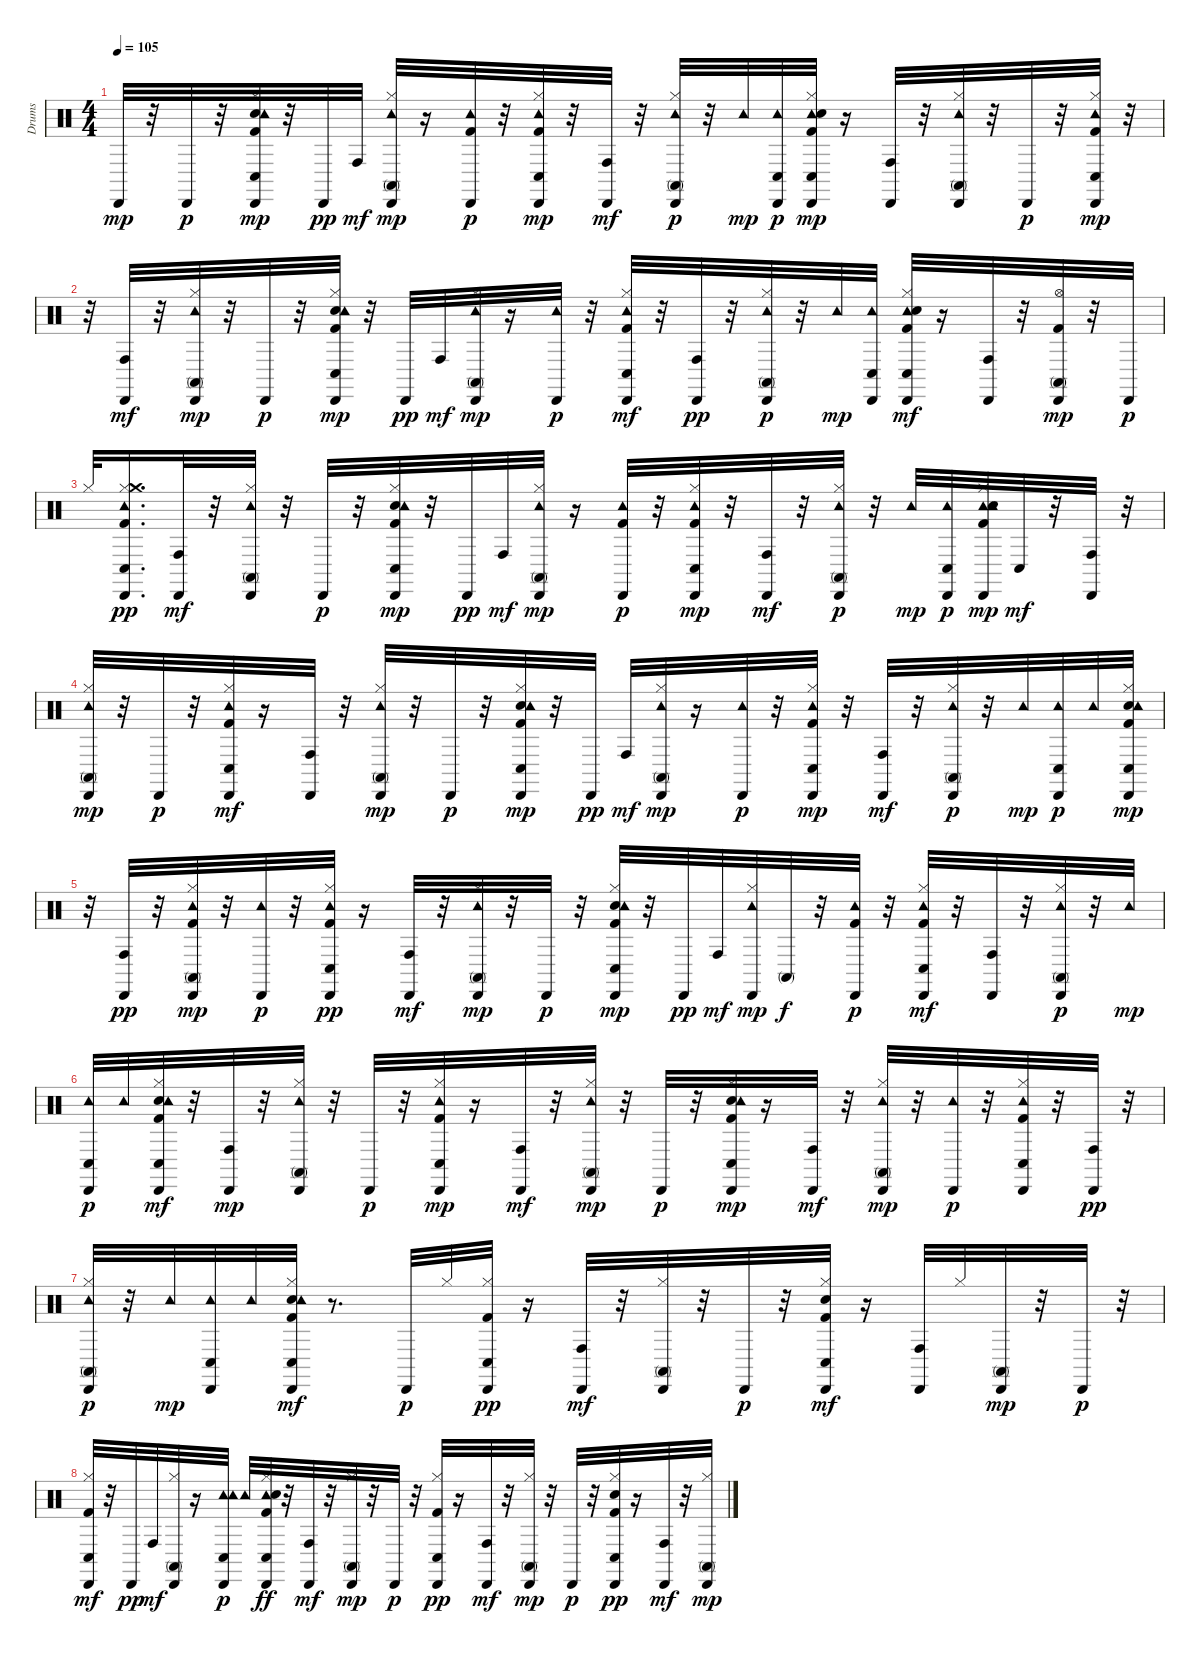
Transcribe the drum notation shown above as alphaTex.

\track ("Drums" "Drums") {instrument percussion}
\staff {score}
\articulation defaults
\ts (4 4)
\tempo 105
\clef neutral
\ks c "Cabasa (hit)".32{dy mp}
r.32 "Cabasa (hit)".32{dy p} r.32 ("Kick (hit) 2" "Snare (hit) 2" "Hi-Hat (closed)" "Cabasa (hit)" "Tambourine (hit)" "Conga low (hit)").32{dy mp} r.32 "Cabasa (hit)".32{dy pp} "Conga high (hit)".32{dy mf} ("Tambourine (hit)" "Hi-Hat (closed)" "Cabasa (hit)" "Conga high (mute)").32{dy mp} r.16 ("Tambourine (hit)" "Kick (hit) 2" "Cabasa (hit)").32{dy p} r.32 ("Conga low (hit)" "Kick (hit) 2" "Hi-Hat (closed)" "Cabasa (hit)" "Tambourine (hit)").32{dy mp} r.32 ("Cabasa (hit)" "Conga high (hit)").32{dy mf} r.32 ("Hi-Hat (closed)" "Cabasa (hit)" "Conga high (mute)" "Tambourine (hit)").32{dy p} r.32 "Tambourine (hit)".32{dy mp} ("Cabasa (hit)" "Conga low (hit)" "Tambourine (hit)").32{dy p} ("Tambourine (hit)" "Conga low (hit)" "Cabasa (hit)" "Kick (hit) 2" "Snare (hit) 2" "Hi-Hat (closed)").32{dy mp} r.16 ("Cabasa (hit)" "Conga high (hit)").32 r.32 ("Hi-Hat (closed)" "Tambourine (hit)" "Conga high (mute)" "Cabasa (hit)").32 r.32 "Cabasa (hit)".32{dy p} r.32 ("Kick (hit) 2" "Hi-Hat (closed)" "Conga low (hit)" "Cabasa (hit)" "Tambourine (hit)").32{dy mp} r.32 |
r.32 ("Cabasa (hit)" "Conga high (hit)").32{dy mf} r.32 ("Conga high (mute)" "Hi-Hat (closed)" "Tambourine (hit)" "Cabasa (hit)").32{dy mp} r.32 "Cabasa (hit)".32{dy p} r.32 ("Kick (hit) 2" "Snare (hit) 2" "Hi-Hat (closed)" "Cabasa (hit)" "Tambourine (hit)" "Conga low (hit)").32{dy mp} r.32 "Cabasa (hit)".32{dy pp} "Conga high (hit)".32{dy mf} ("Hi-Hat (closed)" "Tambourine (hit)" "Cabasa (hit)" "Conga high (mute)").32{dy mp} r.16 ("Tambourine (hit)" "Cabasa (hit)").32{dy p} r.32 ("Kick (hit) 2" "Hi-Hat (closed)" "Tambourine (hit)" "Cabasa (hit)" "Conga low (hit)").32{dy mf} r.32 ("Conga high (hit)" "Cabasa (hit)").32{dy pp} r.32 ("Conga high (mute)" "Hi-Hat (closed)" "Cabasa (hit)" "Tambourine (hit)").32{dy p} r.32 "Tambourine (hit)".32{dy mp} ("Cabasa (hit)" "Conga low (hit)" "Tambourine (hit)").32 ("Tambourine (hit)" "Cabasa (hit)" "Kick (hit) 2" "Snare (hit) 2" "Hi-Hat (closed)" "Conga low (hit)").32{dy mf} r.16 ("Cabasa (hit)" "Conga high (hit)").32 r.32 ("Kick (hit) 2" "Hi-Hat (open)" "Conga high (mute)" "Cabasa (hit)").32{dy mp} r.32 "Cabasa (hit)".32{dy p} |
"Hi-Hat (closed)".32 ("Kick (hit) 2" "Hi-Hat (closed)" "Crash medium (hit)" "Conga low (hit)" "Tambourine (hit)" "Cabasa (hit)").16{d dy pp} ("Cabasa (hit)" "Conga high (hit)").32{dy mf} r.32 ("Hi-Hat (closed)" "Tambourine (hit)" "Cabasa (hit)" "Conga high (mute)").32 r.32 "Cabasa (hit)".32{dy p} r.32 ("Conga low (hit)" "Kick (hit) 2" "Snare (hit) 2" "Hi-Hat (closed)" "Cabasa (hit)" "Tambourine (hit)").32{dy mp} r.32 "Cabasa (hit)".32{dy pp} "Conga high (hit)".32{dy mf} ("Hi-Hat (closed)" "Tambourine (hit)" "Conga high (mute)" "Cabasa (hit)").32{dy mp} r.16 ("Tambourine (hit)" "Kick (hit) 2" "Cabasa (hit)").32{dy p} r.32 ("Kick (hit) 2" "Hi-Hat (closed)" "Cabasa (hit)" "Conga low (hit)" "Tambourine (hit)").32{dy mp} r.32 ("Cabasa (hit)" "Conga high (hit)").32{dy mf} r.32 ("Hi-Hat (closed)" "Cabasa (hit)" "Tambourine (hit)" "Conga high (mute)").32{dy p} r.32 "Tambourine (hit)".32{dy mp} ("Conga low (hit)" "Cabasa (hit)" "Tambourine (hit)").32{dy p} ("Tambourine (hit)" "Cabasa (hit)" "Kick (hit) 2" "Snare (hit) 2" "Hi-Hat (closed)" "Tambourine (hit)").32{dy mp} "Conga low (hit)".32{dy mf} r.32 ("Cabasa (hit)" "Conga high (hit)").32 r.32 |
("Hi-Hat (closed)" "Conga high (mute)" "Tambourine (hit)" "Cabasa (hit)").32{dy mp} r.32 "Cabasa (hit)".32{dy p} r.32 ("Tambourine (hit)" "Kick (hit) 2" "Hi-Hat (closed)" "Cabasa (hit)" "Conga low (hit)").32{dy mf} r.16 ("Cabasa (hit)" "Conga high (hit)").32 r.32 ("Hi-Hat (closed)" "Tambourine (hit)" "Conga high (mute)" "Cabasa (hit)").32{dy mp} r.32 "Cabasa (hit)".32{dy p} r.32 ("Kick (hit) 2" "Snare (hit) 2" "Hi-Hat (closed)" "Conga low (hit)" "Cabasa (hit)" "Tambourine (hit)").32{dy mp} r.32 "Cabasa (hit)".32{dy pp} "Conga high (hit)".32{dy mf} ("Conga high (mute)" "Hi-Hat (closed)" "Tambourine (hit)" "Cabasa (hit)").32{dy mp} r.16 ("Tambourine (hit)" "Cabasa (hit)").32{dy p} r.32 ("Kick (hit) 2" "Hi-Hat (closed)" "Tambourine (hit)" "Cabasa (hit)" "Conga low (hit)").32{dy mp} r.32 ("Cabasa (hit)" "Conga high (hit)").32{dy mf} r.32 ("Hi-Hat (closed)" "Cabasa (hit)" "Conga high (mute)" "Tambourine (hit)").32{dy p} r.32 "Tambourine (hit)".32{dy mp} ("Conga low (hit)" "Cabasa (hit)" "Tambourine (hit)").32{dy p} "Tambourine (hit)".32 ("Cabasa (hit)" "Kick (hit) 2" "Snare (hit) 2" "Hi-Hat (closed)" "Tambourine (hit)" "Conga low (hit)").32{dy mp} |
r.32 ("Conga high (hit)" "Cabasa (hit)").32{dy pp} r.32 ("Conga high (mute)" "Kick (hit) 2" "Hi-Hat (closed)" "Tambourine (hit)" "Cabasa (hit)").32{dy mp} r.32 ("Tambourine (hit)" "Cabasa (hit)").32{dy p} r.32 ("Conga low (hit)" "Kick (hit) 2" "Hi-Hat (closed)" "Tambourine (hit)" "Cabasa (hit)").32{dy pp} r.16 ("Cabasa (hit)" "Conga high (hit)").32{dy mf} r.32 ("Hi-Hat (closed)" "Tambourine (hit)" "Conga high (mute)" "Cabasa (hit)").32{dy mp} r.32 "Cabasa (hit)".32{dy p} r.32 ("Kick (hit) 2" "Snare (hit) 2" "Hi-Hat (closed)" "Conga low (hit)" "Cabasa (hit)" "Tambourine (hit)").32{dy mp} r.32 "Cabasa (hit)".32{dy pp} "Conga high (hit)".32{dy mf} ("Tambourine (hit)" "Hi-Hat (closed)" "Cabasa (hit)").32{dy mp} "Conga high (mute)".32{dy f} r.32 ("Tambourine (hit)" "Kick (hit) 2" "Cabasa (hit)").32{dy p} r.32 ("Kick (hit) 2" "Hi-Hat (closed)" "Cabasa (hit)" "Tambourine (hit)" "Conga low (hit)").32{dy mf} r.32 ("Cabasa (hit)" "Conga high (hit)").32 r.32 ("Hi-Hat (closed)" "Cabasa (hit)" "Conga high (mute)" "Tambourine (hit)").32{dy p} r.32 "Tambourine (hit)".32{dy mp} |
("Cabasa (hit)" "Conga low (hit)" "Tambourine (hit)").32{dy p} "Tambourine (hit)".32 ("Cabasa (hit)" "Kick (hit) 2" "Snare (hit) 2" "Hi-Hat (closed)" "Tambourine (hit)" "Conga low (hit)").32{dy mf} r.32 ("Cabasa (hit)" "Conga high (hit)").32{dy mp} r.32 ("Hi-Hat (closed)" "Tambourine (hit)" "Conga high (mute)" "Cabasa (hit)").32 r.32 "Cabasa (hit)".32{dy p} r.32 ("Kick (hit) 2" "Hi-Hat (closed)" "Conga low (hit)" "Cabasa (hit)" "Tambourine (hit)").32{dy mp} r.16 ("Cabasa (hit)" "Conga high (hit)").32{dy mf} r.32 ("Conga high (mute)" "Hi-Hat (closed)" "Tambourine (hit)" "Cabasa (hit)").32{dy mp} r.32 "Cabasa (hit)".32{dy p} r.32 ("Kick (hit) 2" "Snare (hit) 2" "Hi-Hat (closed)" "Cabasa (hit)" "Conga low (hit)" "Tambourine (hit)").32{dy mp} r.16 ("Cabasa (hit)" "Conga high (hit)").32{dy mf} r.32 ("Hi-Hat (closed)" "Tambourine (hit)" "Cabasa (hit)" "Conga high (mute)").32{dy mp} r.32 ("Tambourine (hit)" "Cabasa (hit)").32{dy p} r.32 ("Conga low (hit)" "Kick (hit) 2" "Hi-Hat (closed)" "Tambourine (hit)" "Cabasa (hit)").32 r.32 ("Conga high (hit)" "Cabasa (hit)").32{dy pp} r.32 |
("Conga high (mute)" "Hi-Hat (closed)" "Cabasa (hit)" "Tambourine (hit)").32{dy p} r.32 "Tambourine (hit)".32{dy mp} ("Cabasa (hit)" "Conga low (hit)" "Tambourine (hit)").32 "Tambourine (hit)".32 ("Conga low (hit)" "Cabasa (hit)" "Kick (hit) 2" "Snare (hit) 2" "Hi-Hat (closed)" "Tambourine (hit)").32{dy mf} r.8{d} "Cabasa (hit)".32{dy p} "Hi-Hat (closed)".32 ("Kick (hit) 2" "Hi-Hat (closed)" "Conga low (hit)" "Cabasa (hit)").32{dy pp} r.16 ("Cabasa (hit)" "Conga high (hit)").32{dy mf} r.32 ("Hi-Hat (closed)" "Cabasa (hit)" "Conga high (mute)").32 r.32 "Cabasa (hit)".32{dy p} r.32 ("Hi-Hat (closed)" "Snare (hit) 2" "Kick (hit) 2" "Cabasa (hit)" "Conga low (hit)").32{dy mf} r.16 ("Cabasa (hit)" "Conga high (hit)").32 "Hi-Hat (closed)".32 ("Conga high (mute)" "Cabasa (hit)").32{dy mp} r.32 "Cabasa (hit)".32{dy p} r.32 |
("Hi-Hat (closed)" "Kick (hit) 2" "Cabasa (hit)" "Conga low (hit)").32{dy mf} r.32 "Cabasa (hit)".32{dy pp} "Conga high (hit)".32{dy mf} ("Cabasa (hit)" "Hi-Hat (closed)" "Conga high (mute)").32 r.16 ("Tambourine (hit)" "Cabasa (hit)" "Conga low (hit)" "Tambourine (hit)").32{dy p} "Tambourine (hit)".32 ("Conga low (hit)" "Cabasa (hit)" "Tambourine (hit)" "Hi-Hat (closed)" "Snare (hit) 2" "Kick (hit) 2").32{dy ff} r.32 ("Cabasa (hit)" "Conga high (hit)").32{dy mf} r.32 ("Conga high (mute)" "Hi-Hat (closed)" "Cabasa (hit)").32{dy mp} r.32 "Cabasa (hit)".32{dy p} r.32 ("Hi-Hat (closed)" "Kick (hit) 2" "Conga low (hit)" "Cabasa (hit)").32{dy pp} r.16 ("Cabasa (hit)" "Conga high (hit)").32{dy mf} r.32 ("Hi-Hat (closed)" "Conga high (mute)" "Cabasa (hit)").32{dy mp} r.32 "Cabasa (hit)".32{dy p} r.32 ("Conga low (hit)" "Hi-Hat (closed)" "Snare (hit) 2" "Kick (hit) 2" "Cabasa (hit)").32{dy pp} r.16 ("Cabasa (hit)" "Conga high (hit)").32{dy mf} r.32 ("Conga high (mute)" "Hi-Hat (closed)" "Cabasa (hit)").32{dy mp}
